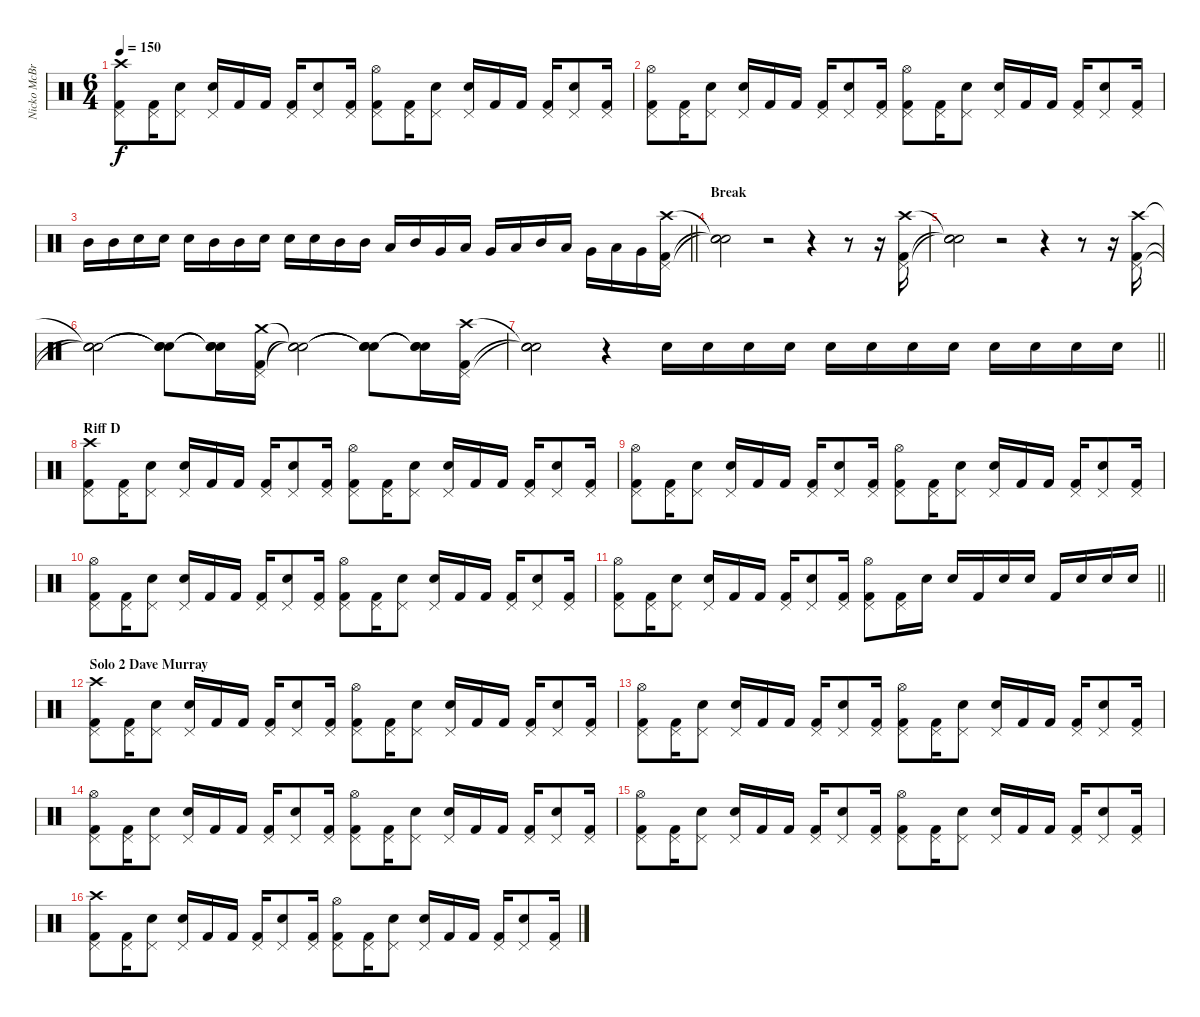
\track ("Nicko McBrain" "Nicko McBr") {instrument percussion}
\staff {score}
\articulation defaults
\ts (6 4)
\tempo 150
\clef neutral
\ks c
("Kick (hit) 2" "Pedal Hi-Hat (hit)" "Crash high (hit)").8{dy f} ("Kick (hit) 2" "Pedal Hi-Hat (hit)").16 ("Snare (hit) 2" "Pedal Hi-Hat (hit)").8 ("Snare (hit) 2" "Pedal Hi-Hat (hit)").16 "Kick (hit) 2".16 "Kick (hit) 2".16 ("Kick (hit) 2" "Pedal Hi-Hat (hit)").16 ("Snare (hit) 2" "Pedal Hi-Hat (hit)").8 ("Kick (hit) 2" "Pedal Hi-Hat (hit)").16 ("Kick (hit) 2" "Pedal Hi-Hat (hit)" "Hi-Hat (open)").8 ("Kick (hit) 2" "Pedal Hi-Hat (hit)").16 ("Snare (hit) 2" "Pedal Hi-Hat (hit)").8 ("Snare (hit) 2" "Pedal Hi-Hat (hit)").16 "Kick (hit) 2".16 "Kick (hit) 2".16 ("Kick (hit) 2" "Pedal Hi-Hat (hit)").16 ("Snare (hit) 2" "Pedal Hi-Hat (hit)").8 ("Kick (hit) 2" "Pedal Hi-Hat (hit)").16 |
("Kick (hit) 2" "Pedal Hi-Hat (hit)" "Hi-Hat (open)").8 ("Kick (hit) 2" "Pedal Hi-Hat (hit)").16 ("Snare (hit) 2" "Pedal Hi-Hat (hit)").8 ("Snare (hit) 2" "Pedal Hi-Hat (hit)").16 "Kick (hit) 2".16 "Kick (hit) 2".16 ("Kick (hit) 2" "Pedal Hi-Hat (hit)").16 ("Snare (hit) 2" "Pedal Hi-Hat (hit)").8 ("Kick (hit) 2" "Pedal Hi-Hat (hit)").16 ("Kick (hit) 2" "Pedal Hi-Hat (hit)" "Hi-Hat (open)").8 ("Kick (hit) 2" "Pedal Hi-Hat (hit)").16 ("Snare (hit) 2" "Pedal Hi-Hat (hit)").8 ("Snare (hit) 2" "Pedal Hi-Hat (hit)").16 "Kick (hit) 2".16 "Kick (hit) 2".16 ("Kick (hit) 2" "Pedal Hi-Hat (hit)").16 ("Snare (hit) 2" "Pedal Hi-Hat (hit)").8 ("Kick (hit) 2" "Pedal Hi-Hat (hit)").16 |
\barLineRight lightlight "Mid Tom (hit)".16 "Mid Tom (hit)".16 "Snare (hit) 2".16 "Snare (hit) 2".16 "Snare (hit) 2".16 "Mid Tom (hit)".16 "Mid Tom (hit)".16 "Snare (hit) 2".16 "Snare (hit) 2".16 "Snare (hit) 2".16 "Mid Tom (hit)".16 "Mid Tom (hit)".16 "Low Tom (hit)".16 "Mid Tom (hit)".16 "Very Low Tom (hit)".16 "Low Tom (hit)".16 "Very Low Tom (hit)".16 "Low Floor Tom (hit)".16 "Mid Tom (hit)".16 "Low Tom (hit)".16 "Very Low Tom (hit)".16 "Low Floor Tom (hit)".16 "Very Low Tom (hit)".16
("Kick (hit) 2" "Pedal Hi-Hat (hit)" "Crash high (hit)").16 |
\section ("" "Break")
("Snare (hit)"{t} "Snare (hit)"{t} "Snare (hit)"{t}).2 r.2 r.4 r.8 r.16 ("Kick (hit) 2" "Pedal Hi-Hat (hit)" "Crash high (hit)").16 |
("Snare (hit)"{t} "Snare (hit)"{t} "Snare (hit)"{t}).2 r.2 r.4 r.8 r.16 ("Kick (hit) 2" "Pedal Hi-Hat (hit)" "Crash high (hit)").16 |
("Snare (hit)"{t} "Snare (hit)"{t} "Snare (hit)"{t}).2 ("Snare (hit)"{t} "Snare (hit)"{t} "Snare (hit)"{t}).8 ("Snare (hit)"{t} "Snare (hit)"{t} "Snare (hit)"{t}).16 ("Kick (hit) 2" "Pedal Hi-Hat (hit)" "Crash medium (hit)").16 ("Snare (hit)"{t} "Snare (hit)"{t} "Snare (hit)"{t}).2 ("Snare (hit)"{t} "Snare (hit)"{t} "Snare (hit)"{t}).8 ("Snare (hit)"{t} "Snare (hit)"{t} "Snare (hit)"{t}).16 ("Kick (hit) 2" "Pedal Hi-Hat (hit)" "Crash high (hit)").16 |
\barLineRight lightlight
("Snare (hit)"{t} "Snare (hit)"{t} "Snare (hit)"{t}).2 r.4 "Snare (hit) 2".16 "Snare (hit) 2".16 "Snare (hit) 2".16 "Snare (hit) 2".16 "Snare (hit) 2".16 "Snare (hit) 2".16 "Snare (hit) 2".16 "Snare (hit) 2".16 "Snare (hit) 2".16 "Snare (hit) 2".16 "Snare (hit) 2".16 "Snare (hit) 2".16 |
\section ("" "Riff D")
("Kick (hit) 2" "Pedal Hi-Hat (hit)" "Crash high (hit)").8 ("Kick (hit) 2" "Pedal Hi-Hat (hit)").16 ("Snare (hit) 2" "Pedal Hi-Hat (hit)").8 ("Snare (hit) 2" "Pedal Hi-Hat (hit)").16 "Kick (hit) 2".16 "Kick (hit) 2".16 ("Kick (hit) 2" "Pedal Hi-Hat (hit)").16 ("Snare (hit) 2" "Pedal Hi-Hat (hit)").8 ("Kick (hit) 2" "Pedal Hi-Hat (hit)").16 ("Kick (hit) 2" "Pedal Hi-Hat (hit)" "Hi-Hat (open)").8 ("Kick (hit) 2" "Pedal Hi-Hat (hit)").16 ("Snare (hit) 2" "Pedal Hi-Hat (hit)").8 ("Snare (hit) 2" "Pedal Hi-Hat (hit)").16 "Kick (hit) 2".16 "Kick (hit) 2".16 ("Kick (hit) 2" "Pedal Hi-Hat (hit)").16 ("Snare (hit) 2" "Pedal Hi-Hat (hit)").8 ("Kick (hit) 2" "Pedal Hi-Hat (hit)").16 |
("Kick (hit) 2" "Pedal Hi-Hat (hit)" "Hi-Hat (open)").8 ("Kick (hit) 2" "Pedal Hi-Hat (hit)").16 ("Snare (hit) 2" "Pedal Hi-Hat (hit)").8 ("Snare (hit) 2" "Pedal Hi-Hat (hit)").16 "Kick (hit) 2".16 "Kick (hit) 2".16 ("Kick (hit) 2" "Pedal Hi-Hat (hit)").16 ("Snare (hit) 2" "Pedal Hi-Hat (hit)").8 ("Kick (hit) 2" "Pedal Hi-Hat (hit)").16 ("Kick (hit) 2" "Pedal Hi-Hat (hit)" "Hi-Hat (open)").8 ("Kick (hit) 2" "Pedal Hi-Hat (hit)").16 ("Snare (hit) 2" "Pedal Hi-Hat (hit)").8 ("Snare (hit) 2" "Pedal Hi-Hat (hit)").16 "Kick (hit) 2".16 "Kick (hit) 2".16 ("Kick (hit) 2" "Pedal Hi-Hat (hit)").16 ("Snare (hit) 2" "Pedal Hi-Hat (hit)").8 ("Kick (hit) 2" "Pedal Hi-Hat (hit)").16 |
("Kick (hit) 2" "Pedal Hi-Hat (hit)" "Hi-Hat (open)").8 ("Kick (hit) 2" "Pedal Hi-Hat (hit)").16 ("Snare (hit) 2" "Pedal Hi-Hat (hit)").8 ("Snare (hit) 2" "Pedal Hi-Hat (hit)").16 "Kick (hit) 2".16 "Kick (hit) 2".16 ("Kick (hit) 2" "Pedal Hi-Hat (hit)").16 ("Snare (hit) 2" "Pedal Hi-Hat (hit)").8 ("Kick (hit) 2" "Pedal Hi-Hat (hit)").16 ("Kick (hit) 2" "Pedal Hi-Hat (hit)" "Hi-Hat (open)").8 ("Kick (hit) 2" "Pedal Hi-Hat (hit)").16 ("Snare (hit) 2" "Pedal Hi-Hat (hit)").8 ("Snare (hit) 2" "Pedal Hi-Hat (hit)").16 "Kick (hit) 2".16 "Kick (hit) 2".16 ("Kick (hit) 2" "Pedal Hi-Hat (hit)").16 ("Snare (hit) 2" "Pedal Hi-Hat (hit)").8 ("Kick (hit) 2" "Pedal Hi-Hat (hit)").16 |
\barLineRight lightlight
("Kick (hit) 2" "Pedal Hi-Hat (hit)" "Hi-Hat (open)").8 ("Kick (hit) 2" "Pedal Hi-Hat (hit)").16 ("Snare (hit) 2" "Pedal Hi-Hat (hit)").8 ("Snare (hit) 2" "Pedal Hi-Hat (hit)").16 "Kick (hit) 2".16 "Kick (hit) 2".16 ("Kick (hit) 2" "Pedal Hi-Hat (hit)").16 ("Snare (hit) 2" "Pedal Hi-Hat (hit)").8 ("Kick (hit) 2" "Pedal Hi-Hat (hit)").16 ("Kick (hit) 2" "Pedal Hi-Hat (hit)" "Hi-Hat (open)").8 ("Kick (hit) 2" "Pedal Hi-Hat (hit)").16 "Snare (hit) 2".16 "Snare (hit) 2".16 "Kick (hit) 2".16 "Snare (hit) 2".16 "Snare (hit) 2".16 "Kick (hit) 2".16 "Snare (hit) 2".16 "Snare (hit) 2".16 "Snare (hit) 2".16 |
\section ("" "Solo 2 Dave Murray")
("Kick (hit) 2" "Pedal Hi-Hat (hit)" "Crash high (hit)").8 ("Kick (hit) 2" "Pedal Hi-Hat (hit)").16 ("Snare (hit) 2" "Pedal Hi-Hat (hit)").8 ("Snare (hit) 2" "Pedal Hi-Hat (hit)").16 "Kick (hit) 2".16 "Kick (hit) 2".16 ("Kick (hit) 2" "Pedal Hi-Hat (hit)").16 ("Snare (hit) 2" "Pedal Hi-Hat (hit)").8 ("Kick (hit) 2" "Pedal Hi-Hat (hit)").16 ("Kick (hit) 2" "Pedal Hi-Hat (hit)" "Hi-Hat (open)").8 ("Kick (hit) 2" "Pedal Hi-Hat (hit)").16 ("Snare (hit) 2" "Pedal Hi-Hat (hit)").8 ("Snare (hit) 2" "Pedal Hi-Hat (hit)").16 "Kick (hit) 2".16 "Kick (hit) 2".16 ("Kick (hit) 2" "Pedal Hi-Hat (hit)").16 ("Snare (hit) 2" "Pedal Hi-Hat (hit)").8 ("Kick (hit) 2" "Pedal Hi-Hat (hit)").16 |
("Kick (hit) 2" "Pedal Hi-Hat (hit)" "Hi-Hat (open)").8 ("Kick (hit) 2" "Pedal Hi-Hat (hit)").16 ("Snare (hit) 2" "Pedal Hi-Hat (hit)").8 ("Snare (hit) 2" "Pedal Hi-Hat (hit)").16 "Kick (hit) 2".16 "Kick (hit) 2".16 ("Kick (hit) 2" "Pedal Hi-Hat (hit)").16 ("Snare (hit) 2" "Pedal Hi-Hat (hit)").8 ("Kick (hit) 2" "Pedal Hi-Hat (hit)").16 ("Kick (hit) 2" "Pedal Hi-Hat (hit)" "Hi-Hat (open)").8 ("Kick (hit) 2" "Pedal Hi-Hat (hit)").16 ("Snare (hit) 2" "Pedal Hi-Hat (hit)").8 ("Snare (hit) 2" "Pedal Hi-Hat (hit)").16 "Kick (hit) 2".16 "Kick (hit) 2".16 ("Kick (hit) 2" "Pedal Hi-Hat (hit)").16 ("Snare (hit) 2" "Pedal Hi-Hat (hit)").8 ("Kick (hit) 2" "Pedal Hi-Hat (hit)").16 |
("Kick (hit) 2" "Pedal Hi-Hat (hit)" "Hi-Hat (open)").8 ("Kick (hit) 2" "Pedal Hi-Hat (hit)").16 ("Snare (hit) 2" "Pedal Hi-Hat (hit)").8 ("Snare (hit) 2" "Pedal Hi-Hat (hit)").16 "Kick (hit) 2".16 "Kick (hit) 2".16 ("Kick (hit) 2" "Pedal Hi-Hat (hit)").16 ("Snare (hit) 2" "Pedal Hi-Hat (hit)").8 ("Kick (hit) 2" "Pedal Hi-Hat (hit)").16 ("Kick (hit) 2" "Pedal Hi-Hat (hit)" "Hi-Hat (open)").8 ("Kick (hit) 2" "Pedal Hi-Hat (hit)").16 ("Snare (hit) 2" "Pedal Hi-Hat (hit)").8 ("Snare (hit) 2" "Pedal Hi-Hat (hit)").16 "Kick (hit) 2".16 "Kick (hit) 2".16 ("Kick (hit) 2" "Pedal Hi-Hat (hit)").16 ("Snare (hit) 2" "Pedal Hi-Hat (hit)").8 ("Kick (hit) 2" "Pedal Hi-Hat (hit)").16 |
("Kick (hit) 2" "Pedal Hi-Hat (hit)" "Hi-Hat (open)").8 ("Kick (hit) 2" "Pedal Hi-Hat (hit)").16 ("Snare (hit) 2" "Pedal Hi-Hat (hit)").8 ("Snare (hit) 2" "Pedal Hi-Hat (hit)").16 "Kick (hit) 2".16 "Kick (hit) 2".16 ("Kick (hit) 2" "Pedal Hi-Hat (hit)").16 ("Snare (hit) 2" "Pedal Hi-Hat (hit)").8 ("Kick (hit) 2" "Pedal Hi-Hat (hit)").16 ("Kick (hit) 2" "Pedal Hi-Hat (hit)" "Hi-Hat (open)").8 ("Kick (hit) 2" "Pedal Hi-Hat (hit)").16 ("Snare (hit) 2" "Pedal Hi-Hat (hit)").8 ("Snare (hit) 2" "Pedal Hi-Hat (hit)").16 "Kick (hit) 2".16 "Kick (hit) 2".16 ("Kick (hit) 2" "Pedal Hi-Hat (hit)").16 ("Snare (hit) 2" "Pedal Hi-Hat (hit)").8 ("Kick (hit) 2" "Pedal Hi-Hat (hit)").16 |
("Kick (hit) 2" "Pedal Hi-Hat (hit)" "Crash high (hit)").8 ("Kick (hit) 2" "Pedal Hi-Hat (hit)").16 ("Snare (hit) 2" "Pedal Hi-Hat (hit)").8 ("Snare (hit) 2" "Pedal Hi-Hat (hit)").16 "Kick (hit) 2".16 "Kick (hit) 2".16 ("Kick (hit) 2" "Pedal Hi-Hat (hit)").16 ("Snare (hit) 2" "Pedal Hi-Hat (hit)").8 ("Kick (hit) 2" "Pedal Hi-Hat (hit)").16 ("Kick (hit) 2" "Pedal Hi-Hat (hit)" "Hi-Hat (open)").8 ("Kick (hit) 2" "Pedal Hi-Hat (hit)").16 ("Snare (hit) 2" "Pedal Hi-Hat (hit)").8 ("Snare (hit) 2" "Pedal Hi-Hat (hit)").16 "Kick (hit) 2".16 "Kick (hit) 2".16 ("Kick (hit) 2" "Pedal Hi-Hat (hit)").16 ("Snare (hit) 2" "Pedal Hi-Hat (hit)").8 ("Kick (hit) 2" "Pedal Hi-Hat (hit)").16
